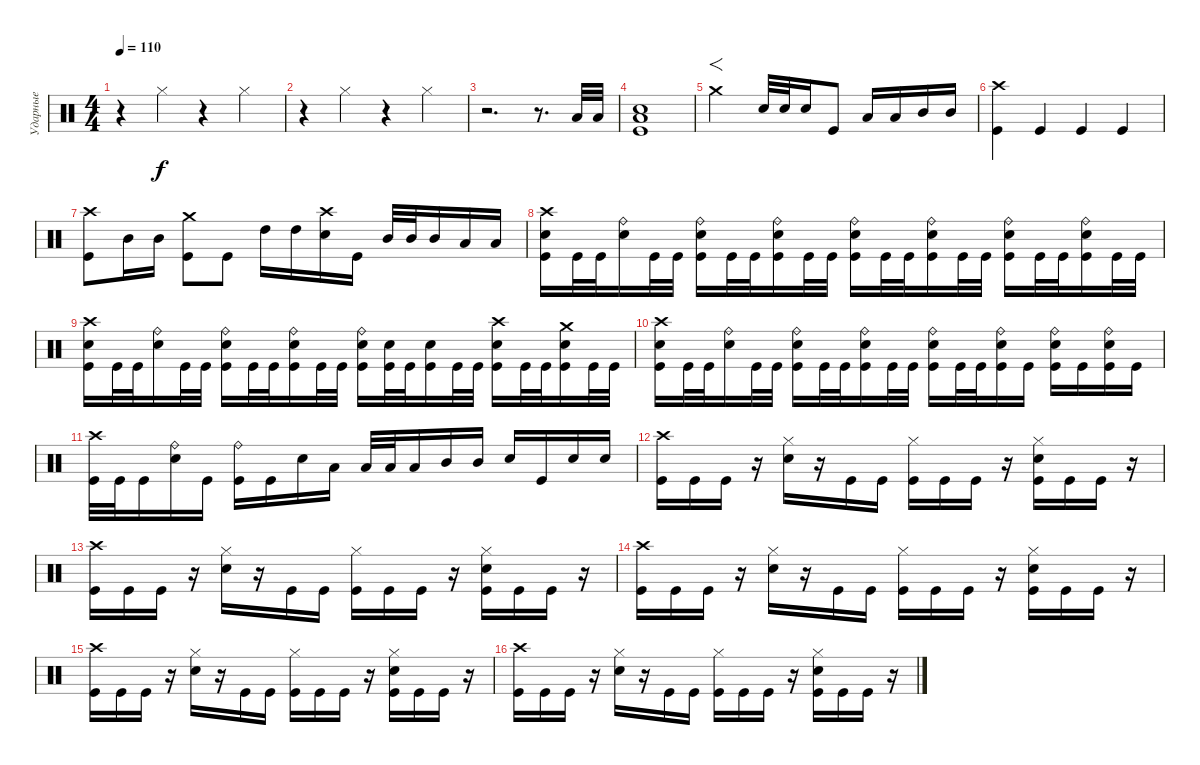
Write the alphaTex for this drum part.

\track ("Ударные" "Ударные") {instrument percussion}
\staff {score}
\articulation defaults
\ts (4 4)
\tempo 110
\clef neutral
\ks c
r.4{dy f} "Hi-Hat (closed)".4 r.4 "Hi-Hat (closed)".4 |
r.4 "Hi-Hat (closed)".4 r.4 "Hi-Hat (closed)".4 |
r.2{d} r.8{d} "Low Tom (hit)".32 "Low Tom (hit)".32 |
("Low Tom (hit)" "Electric Snare (hit)" "Kick (hit)").1 |
"Crash medium (hit)".2{f} "Electric Snare (hit)".32 "Electric Snare (hit)".32 "Electric Snare (hit)".16 "Kick (hit)".8 "Low Tom (hit)".16 "Low Tom (hit)".16 "Mid Tom (hit)".16 "Mid Tom (hit)".16 |
("Crash high (hit)" "Kick (hit)").4 "Kick (hit)".4 "Kick (hit)".4 "Kick (hit)".4 |
("Crash high (hit)" "Kick (hit)").8 "Mid Tom (hit)".16 "Mid Tom (hit)".16 ("Crash medium (hit)" "Kick (hit)").8 "Kick (hit)".8 "High Tom (hit)".16 "High Tom (hit)".16 ("Crash high (hit)" "Electric Snare (hit)").16 "Kick (hit)".16 "Mid Tom (hit)".32 "Mid Tom (hit)".32 "Mid Tom (hit)".16 "Low Tom (hit)".16 "Low Tom (hit)".16 |
("Crash high (hit)" "Electric Snare (hit)" "Kick (hit)").16 "Kick (hit)".32 "Kick (hit)".32 ("Ride (bell)" "Electric Snare (hit)").16 "Kick (hit)".32 "Kick (hit)".32 ("Ride (bell)" "Electric Snare (hit)" "Kick (hit)").16 "Kick (hit)".32 "Kick (hit)".32 ("Ride (bell)" "Electric Snare (hit)" "Kick (hit)").16 "Kick (hit)".32 "Kick (hit)".32 ("Ride (bell)" "Electric Snare (hit)" "Kick (hit)").16 "Kick (hit)".32 "Kick (hit)".32 ("Ride (bell)" "Electric Snare (hit)" "Kick (hit)").16 "Kick (hit)".32 "Kick (hit)".32 ("Ride (bell)" "Electric Snare (hit)" "Kick (hit)").16 "Kick (hit)".32 "Kick (hit)".32 ("Ride (bell)" "Electric Snare (hit)" "Kick (hit)").16 "Kick (hit)".32 "Kick (hit)".32 |
("Crash high (hit)" "Electric Snare (hit)" "Kick (hit)").16 "Kick (hit)".32 "Kick (hit)".32 ("Ride (bell)" "Electric Snare (hit)").16 "Kick (hit)".32 "Kick (hit)".32 ("Ride (bell)" "Electric Snare (hit)" "Kick (hit)").16 "Kick (hit)".32 "Kick (hit)".32 ("Ride (bell)" "Electric Snare (hit)" "Kick (hit)").16 "Kick (hit)".32 "Kick (hit)".32 ("Ride (bell)" "Electric Snare (hit)" "Kick (hit)").16 ("Electric Snare (hit)" "Kick (hit)").32 "Kick (hit)".32 ("Electric Snare (hit)" "Kick (hit)").16 "Kick (hit)".32 "Kick (hit)".32 ("Crash high (hit)" "Electric Snare (hit)" "Kick (hit)").16 "Kick (hit)".32 "Kick (hit)".32 ("Crash medium (hit)" "Electric Snare (hit)" "Kick (hit)").16 "Kick (hit)".32 "Kick (hit)".32 |
("Crash high (hit)" "Electric Snare (hit)" "Kick (hit)").16 "Kick (hit)".32 "Kick (hit)".32 ("Ride (bell)" "Electric Snare (hit)").16 "Kick (hit)".32 "Kick (hit)".32 ("Ride (bell)" "Electric Snare (hit)" "Kick (hit)").16 "Kick (hit)".32 "Kick (hit)".32 ("Ride (bell)" "Electric Snare (hit)" "Kick (hit)").16 "Kick (hit)".32 "Kick (hit)".32 ("Ride (bell)" "Electric Snare (hit)" "Kick (hit)").16 "Kick (hit)".32 "Kick (hit)".32 ("Ride (bell)" "Electric Snare (hit)" "Kick (hit)").16 "Kick (hit)".16 ("Ride (bell)" "Electric Snare (hit)" "Kick (hit)").16 "Kick (hit)".16 ("Ride (bell)" "Electric Snare (hit)" "Kick (hit)").16 "Kick (hit)".16 |
("Crash high (hit)" "Kick (hit)").32 "Kick (hit)".32 "Kick (hit)".16 ("Ride (bell)" "Electric Snare (hit)").16 "Kick (hit)".16 ("Ride (bell)" "Kick (hit)").16 "Kick (hit)".16 "Electric Snare (hit)".16 "Low Tom (hit)".16 "Low Tom (hit)".32 "Low Tom (hit)".32 "Low Tom (hit)".16 "Mid Tom (hit)".16 "Mid Tom (hit)".16 "Electric Snare (hit)".16 "Kick (hit)".16 "Electric Snare (hit)".16 "Electric Snare (hit)".16 |
("Crash high (hit)" "Kick (hit)").16 "Kick (hit)".16 "Kick (hit)".16 r.16 ("Hi-Hat (closed)" "Electric Snare (hit)").16 r.16 "Kick (hit)".16 "Kick (hit)".16 ("Hi-Hat (closed)" "Kick (hit)").16 "Kick (hit)".16 "Kick (hit)".16 r.16 ("Hi-Hat (closed)" "Electric Snare (hit)" "Kick (hit)").16 "Kick (hit)".16 "Kick (hit)".16 r.16 |
("Crash high (hit)" "Kick (hit)").16 "Kick (hit)".16 "Kick (hit)".16 r.16 ("Hi-Hat (closed)" "Electric Snare (hit)").16 r.16 "Kick (hit)".16 "Kick (hit)".16 ("Hi-Hat (closed)" "Kick (hit)").16 "Kick (hit)".16 "Kick (hit)".16 r.16 ("Hi-Hat (closed)" "Electric Snare (hit)" "Kick (hit)").16 "Kick (hit)".16 "Kick (hit)".16 r.16 |
("Crash high (hit)" "Kick (hit)").16 "Kick (hit)".16 "Kick (hit)".16 r.16 ("Hi-Hat (closed)" "Electric Snare (hit)").16 r.16 "Kick (hit)".16 "Kick (hit)".16 ("Hi-Hat (closed)" "Kick (hit)").16 "Kick (hit)".16 "Kick (hit)".16 r.16 ("Hi-Hat (closed)" "Electric Snare (hit)" "Kick (hit)").16 "Kick (hit)".16 "Kick (hit)".16 r.16 |
("Crash high (hit)" "Kick (hit)").16 "Kick (hit)".16 "Kick (hit)".16 r.16 ("Hi-Hat (closed)" "Electric Snare (hit)").16 r.16 "Kick (hit)".16 "Kick (hit)".16 ("Hi-Hat (closed)" "Kick (hit)").16 "Kick (hit)".16 "Kick (hit)".16 r.16 ("Hi-Hat (closed)" "Electric Snare (hit)" "Kick (hit)").16 "Kick (hit)".16 "Kick (hit)".16 r.16 |
("Crash high (hit)" "Kick (hit)").16 "Kick (hit)".16 "Kick (hit)".16 r.16 ("Hi-Hat (closed)" "Electric Snare (hit)").16 r.16 "Kick (hit)".16 "Kick (hit)".16 ("Hi-Hat (closed)" "Kick (hit)").16 "Kick (hit)".16 "Kick (hit)".16 r.16 ("Hi-Hat (closed)" "Electric Snare (hit)" "Kick (hit)").16 "Kick (hit)".16 "Kick (hit)".16 r.16
